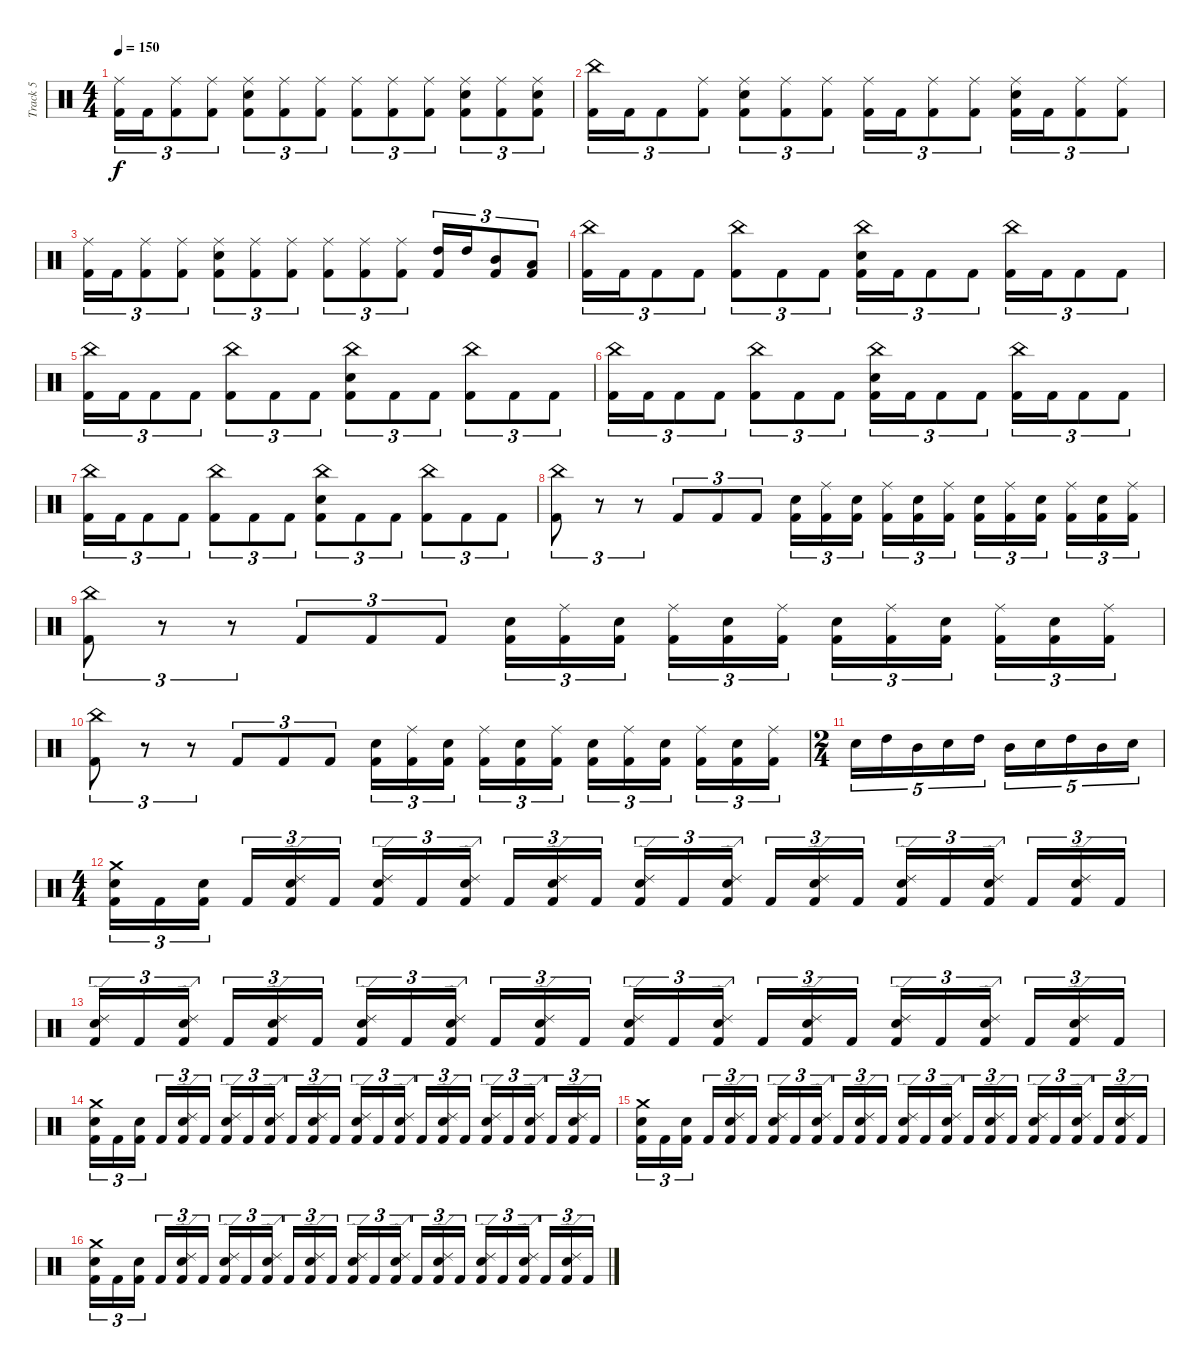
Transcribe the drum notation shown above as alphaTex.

\track ("Track 5" "Track 5") {instrument percussion}
\staff {score}
\articulation defaults
\ts (4 4)
\tempo 150
\clef neutral
\ks c
("Ride (middle)" "Kick (hit) 2").16{tu (3 2) dy f} "Kick (hit) 2".16{tu (3 2)} ("Ride (middle)" "Kick (hit) 2").8{tu (3 2)} ("Ride (middle)" "Kick (hit) 2").8{tu (3 2)} ("Ride (middle)" "Electric Snare (hit)" "Kick (hit) 2").8{tu (3 2)} ("Ride (middle)" "Kick (hit) 2").8{tu (3 2)} ("Ride (middle)" "Kick (hit) 2").8{tu (3 2)} ("Ride (middle)" "Kick (hit) 2").8{tu (3 2)} ("Ride (middle)" "Kick (hit) 2").8{tu (3 2)} ("Ride (middle)" "Kick (hit) 2").8{tu (3 2)} ("Ride (middle)" "Electric Snare (hit)" "Kick (hit) 2").8{tu (3 2)} ("Ride (middle)" "Kick (hit) 2").8{tu (3 2)} ("Ride (middle)" "Electric Snare (hit)" "Kick (hit) 2").8{tu (3 2)} |
("China (hit)" "Kick (hit) 2").16{tu (3 2)} "Kick (hit) 2".16{tu (3 2)} "Kick (hit) 2".8{tu (3 2)} ("Ride (middle)" "Kick (hit) 2").8{tu (3 2)} ("Ride (middle)" "Electric Snare (hit)" "Kick (hit) 2").8{tu (3 2)} ("Ride (middle)" "Kick (hit) 2").8{tu (3 2)} ("Ride (middle)" "Kick (hit) 2").8{tu (3 2)} ("Ride (middle)" "Kick (hit) 2").16{tu (3 2)} "Kick (hit) 2".16{tu (3 2)} ("Ride (middle)" "Kick (hit) 2").8{tu (3 2)} ("Ride (middle)" "Kick (hit) 2").8{tu (3 2)} ("Ride (middle)" "Electric Snare (hit)" "Kick (hit) 2").16{tu (3 2)} "Kick (hit) 2".16{tu (3 2)} ("Ride (middle)" "Kick (hit) 2").8{tu (3 2)} ("Ride (middle)" "Kick (hit) 2").8{tu (3 2)} |
("Ride (middle)" "Kick (hit) 2").16{tu (3 2)} "Kick (hit) 2".16{tu (3 2)} ("Ride (middle)" "Kick (hit) 2").8{tu (3 2)} ("Ride (middle)" "Kick (hit) 2").8{tu (3 2)} ("Ride (middle)" "Electric Snare (hit)" "Kick (hit) 2").8{tu (3 2)} ("Ride (middle)" "Kick (hit) 2").8{tu (3 2)} ("Ride (middle)" "Kick (hit) 2").8{tu (3 2)} ("Ride (middle)" "Kick (hit) 2").8{tu (3 2)} ("Ride (middle)" "Kick (hit) 2").8{tu (3 2)} ("Ride (middle)" "Kick (hit) 2").8{tu (3 2)} ("High Tom (hit)" "Kick (hit) 2").16{tu (3 2)} "High Tom (hit)".16{tu (3 2)} ("Mid Tom (hit)" "Kick (hit) 2").8{tu (3 2)} ("Low Tom (hit)" "Kick (hit) 2").8{tu (3 2)} |
("China (hit)" "Kick (hit) 2").16{tu (3 2)} "Kick (hit) 2".16{tu (3 2)} "Kick (hit) 2".8{tu (3 2)} "Kick (hit) 2".8{tu (3 2)} ("China (hit)" "Kick (hit) 2").8{tu (3 2)} "Kick (hit) 2".8{tu (3 2)} "Kick (hit) 2".8{tu (3 2)} ("China (hit)" "Electric Snare (hit)" "Kick (hit) 2").16{tu (3 2)} "Kick (hit) 2".16{tu (3 2)} "Kick (hit) 2".8{tu (3 2)} "Kick (hit) 2".8{tu (3 2)} ("China (hit)" "Kick (hit) 2").16{tu (3 2)} "Kick (hit) 2".16{tu (3 2)} "Kick (hit) 2".8{tu (3 2)} "Kick (hit) 2".8{tu (3 2)} |
("China (hit)" "Kick (hit) 2").16{tu (3 2)} "Kick (hit) 2".16{tu (3 2)} "Kick (hit) 2".8{tu (3 2)} "Kick (hit) 2".8{tu (3 2)} ("China (hit)" "Kick (hit) 2").8{tu (3 2)} "Kick (hit) 2".8{tu (3 2)} "Kick (hit) 2".8{tu (3 2)} ("China (hit)" "Electric Snare (hit)" "Kick (hit) 2").8{tu (3 2)} "Kick (hit) 2".8{tu (3 2)} "Kick (hit) 2".8{tu (3 2)} ("China (hit)" "Kick (hit) 2").8{tu (3 2)} "Kick (hit) 2".8{tu (3 2)} "Kick (hit) 2".8{tu (3 2)} |
("China (hit)" "Kick (hit) 2").16{tu (3 2)} "Kick (hit) 2".16{tu (3 2)} "Kick (hit) 2".8{tu (3 2)} "Kick (hit) 2".8{tu (3 2)} ("China (hit)" "Kick (hit) 2").8{tu (3 2)} "Kick (hit) 2".8{tu (3 2)} "Kick (hit) 2".8{tu (3 2)} ("China (hit)" "Electric Snare (hit)" "Kick (hit) 2").16{tu (3 2)} "Kick (hit) 2".16{tu (3 2)} "Kick (hit) 2".8{tu (3 2)} "Kick (hit) 2".8{tu (3 2)} ("China (hit)" "Kick (hit) 2").16{tu (3 2)} "Kick (hit) 2".16{tu (3 2)} "Kick (hit) 2".8{tu (3 2)} "Kick (hit) 2".8{tu (3 2)} |
("China (hit)" "Kick (hit) 2").16{tu (3 2)} "Kick (hit) 2".16{tu (3 2)} "Kick (hit) 2".8{tu (3 2)} "Kick (hit) 2".8{tu (3 2)} ("China (hit)" "Kick (hit) 2").8{tu (3 2)} "Kick (hit) 2".8{tu (3 2)} "Kick (hit) 2".8{tu (3 2)} ("China (hit)" "Electric Snare (hit)" "Kick (hit) 2").8{tu (3 2)} "Kick (hit) 2".8{tu (3 2)} "Kick (hit) 2".8{tu (3 2)} ("China (hit)" "Kick (hit) 2").8{tu (3 2)} "Kick (hit) 2".8{tu (3 2)} "Kick (hit) 2".8{tu (3 2)} |
("China (hit)" "Kick (hit) 2").8{tu (3 2)} r.8{tu (3 2)} r.8{tu (3 2)} "Kick (hit) 2".8{tu (3 2)} "Kick (hit) 2".8{tu (3 2)} "Kick (hit) 2".8{tu (3 2)} ("Electric Snare (hit)" "Kick (hit) 2").16{tu (3 2)} ("Ride (middle)" "Kick (hit) 2").16{tu (3 2)} ("Electric Snare (hit)" "Kick (hit) 2").16{tu (3 2)} ("Ride (middle)" "Kick (hit) 2").16{tu (3 2)} ("Electric Snare (hit)" "Kick (hit) 2").16{tu (3 2)} ("Ride (middle)" "Kick (hit) 2").16{tu (3 2)} ("Electric Snare (hit)" "Kick (hit) 2").16{tu (3 2)} ("Ride (middle)" "Kick (hit) 2").16{tu (3 2)} ("Electric Snare (hit)" "Kick (hit) 2").16{tu (3 2)} ("Ride (middle)" "Kick (hit) 2").16{tu (3 2)} ("Electric Snare (hit)" "Kick (hit) 2").16{tu (3 2)} ("Ride (middle)" "Kick (hit) 2").16{tu (3 2)} |
("China (hit)" "Kick (hit) 2").8{tu (3 2)} r.8{tu (3 2)} r.8{tu (3 2)} "Kick (hit) 2".8{tu (3 2)} "Kick (hit) 2".8{tu (3 2)} "Kick (hit) 2".8{tu (3 2)} ("Electric Snare (hit)" "Kick (hit) 2").16{tu (3 2)} ("Ride (middle)" "Kick (hit) 2").16{tu (3 2)} ("Electric Snare (hit)" "Kick (hit) 2").16{tu (3 2)} ("Ride (middle)" "Kick (hit) 2").16{tu (3 2)} ("Electric Snare (hit)" "Kick (hit) 2").16{tu (3 2)} ("Ride (middle)" "Kick (hit) 2").16{tu (3 2)} ("Electric Snare (hit)" "Kick (hit) 2").16{tu (3 2)} ("Ride (middle)" "Kick (hit) 2").16{tu (3 2)} ("Electric Snare (hit)" "Kick (hit) 2").16{tu (3 2)} ("Ride (middle)" "Kick (hit) 2").16{tu (3 2)} ("Electric Snare (hit)" "Kick (hit) 2").16{tu (3 2)} ("Ride (middle)" "Kick (hit) 2").16{tu (3 2)} |
("China (hit)" "Kick (hit) 2").8{tu (3 2)} r.8{tu (3 2)} r.8{tu (3 2)} "Kick (hit) 2".8{tu (3 2)} "Kick (hit) 2".8{tu (3 2)} "Kick (hit) 2".8{tu (3 2)} ("Electric Snare (hit)" "Kick (hit) 2").16{tu (3 2)} ("Ride (middle)" "Kick (hit) 2").16{tu (3 2)} ("Electric Snare (hit)" "Kick (hit) 2").16{tu (3 2)} ("Ride (middle)" "Kick (hit) 2").16{tu (3 2)} ("Electric Snare (hit)" "Kick (hit) 2").16{tu (3 2)} ("Ride (middle)" "Kick (hit) 2").16{tu (3 2)} ("Electric Snare (hit)" "Kick (hit) 2").16{tu (3 2)} ("Ride (middle)" "Kick (hit) 2").16{tu (3 2)} ("Electric Snare (hit)" "Kick (hit) 2").16{tu (3 2)} ("Ride (middle)" "Kick (hit) 2").16{tu (3 2)} ("Electric Snare (hit)" "Kick (hit) 2").16{tu (3 2)} ("Ride (middle)" "Kick (hit) 2").16{tu (3 2)} |
\ts (2 4)
"Electric Snare (hit)".16{tu (5 4)} "High Tom (hit)".16{tu (5 4)} "Mid Tom (hit)".16{tu (5 4)} "Electric Snare (hit)".16{tu (5 4)} "High Tom (hit)".16{tu (5 4)} "Mid Tom (hit)".16{tu (5 4)} "Electric Snare (hit)".16{tu (5 4)} "High Tom (hit)".16{tu (5 4)} "Mid Tom (hit)".16{tu (5 4)} "Electric Snare (hit)".16{tu (5 4)} |
\ts (4 4)
("Crash medium (hit)" "Electric Snare (hit)" "Kick (hit) 2").16{tu (3 2)} "Kick (hit) 2".16{tu (3 2)} ("Electric Snare (hit)" "Kick (hit) 2").16{tu (3 2)} "Kick (hit) 2".16{tu (3 2)} ("Ride (edge) 2" "Electric Snare (hit)" "Kick (hit) 2").16{tu (3 2)} "Kick (hit) 2".16{tu (3 2)} ("Ride (edge) 2" "Electric Snare (hit)" "Kick (hit) 2").16{tu (3 2)} "Kick (hit) 2".16{tu (3 2)} ("Ride (edge) 2" "Electric Snare (hit)" "Kick (hit) 2").16{tu (3 2)} "Kick (hit) 2".16{tu (3 2)} ("Ride (edge) 2" "Electric Snare (hit)" "Kick (hit) 2").16{tu (3 2)} "Kick (hit) 2".16{tu (3 2)} ("Ride (edge) 2" "Electric Snare (hit)" "Kick (hit) 2").16{tu (3 2)} "Kick (hit) 2".16{tu (3 2)} ("Ride (edge) 2" "Electric Snare (hit)" "Kick (hit) 2").16{tu (3 2)} "Kick (hit) 2".16{tu (3 2)} ("Ride (edge) 2" "Electric Snare (hit)" "Kick (hit) 2").16{tu (3 2)} "Kick (hit) 2".16{tu (3 2)} ("Ride (edge) 2" "Electric Snare (hit)" "Kick (hit) 2").16{tu (3 2)} "Kick (hit) 2".16{tu (3 2)} ("Ride (edge) 2" "Electric Snare (hit)" "Kick (hit) 2").16{tu (3 2)} "Kick (hit) 2".16{tu (3 2)} ("Ride (edge) 2" "Electric Snare (hit)" "Kick (hit) 2").16{tu (3 2)} "Kick (hit) 2".16{tu (3 2)} |
("Ride (edge) 2" "Electric Snare (hit)" "Kick (hit) 2").16{tu (3 2)} "Kick (hit) 2".16{tu (3 2)} ("Ride (edge) 2" "Electric Snare (hit)" "Kick (hit) 2").16{tu (3 2)} "Kick (hit) 2".16{tu (3 2)} ("Ride (edge) 2" "Electric Snare (hit)" "Kick (hit) 2").16{tu (3 2)} "Kick (hit) 2".16{tu (3 2)} ("Ride (edge) 2" "Electric Snare (hit)" "Kick (hit) 2").16{tu (3 2)} "Kick (hit) 2".16{tu (3 2)} ("Ride (edge) 2" "Electric Snare (hit)" "Kick (hit) 2").16{tu (3 2)} "Kick (hit) 2".16{tu (3 2)} ("Ride (edge) 2" "Electric Snare (hit)" "Kick (hit) 2").16{tu (3 2)} "Kick (hit) 2".16{tu (3 2)} ("Ride (edge) 2" "Electric Snare (hit)" "Kick (hit) 2").16{tu (3 2)} "Kick (hit) 2".16{tu (3 2)} ("Ride (edge) 2" "Electric Snare (hit)" "Kick (hit) 2").16{tu (3 2)} "Kick (hit) 2".16{tu (3 2)} ("Ride (edge) 2" "Electric Snare (hit)" "Kick (hit) 2").16{tu (3 2)} "Kick (hit) 2".16{tu (3 2)} ("Ride (edge) 2" "Electric Snare (hit)" "Kick (hit) 2").16{tu (3 2)} "Kick (hit) 2".16{tu (3 2)} ("Ride (edge) 2" "Electric Snare (hit)" "Kick (hit) 2").16{tu (3 2)} "Kick (hit) 2".16{tu (3 2)} ("Ride (edge) 2" "Electric Snare (hit)" "Kick (hit) 2").16{tu (3 2)} "Kick (hit) 2".16{tu (3 2)} |
("Crash medium (hit)" "Electric Snare (hit)" "Kick (hit) 2").16{tu (3 2)} "Kick (hit) 2".16{tu (3 2)} ("Electric Snare (hit)" "Kick (hit) 2").16{tu (3 2)} "Kick (hit) 2".16{tu (3 2)} ("Ride (edge) 2" "Electric Snare (hit)" "Kick (hit) 2").16{tu (3 2)} "Kick (hit) 2".16{tu (3 2)} ("Ride (edge) 2" "Electric Snare (hit)" "Kick (hit) 2").16{tu (3 2)} "Kick (hit) 2".16{tu (3 2)} ("Ride (edge) 2" "Electric Snare (hit)" "Kick (hit) 2").16{tu (3 2)} "Kick (hit) 2".16{tu (3 2)} ("Ride (edge) 2" "Electric Snare (hit)" "Kick (hit) 2").16{tu (3 2)} "Kick (hit) 2".16{tu (3 2)} ("Ride (edge) 2" "Electric Snare (hit)" "Kick (hit) 2").16{tu (3 2)} "Kick (hit) 2".16{tu (3 2)} ("Ride (edge) 2" "Electric Snare (hit)" "Kick (hit) 2").16{tu (3 2)} "Kick (hit) 2".16{tu (3 2)} ("Ride (edge) 2" "Electric Snare (hit)" "Kick (hit) 2").16{tu (3 2)} "Kick (hit) 2".16{tu (3 2)} ("Ride (edge) 2" "Electric Snare (hit)" "Kick (hit) 2").16{tu (3 2)} "Kick (hit) 2".16{tu (3 2)} ("Ride (edge) 2" "Electric Snare (hit)" "Kick (hit) 2").16{tu (3 2)} "Kick (hit) 2".16{tu (3 2)} ("Ride (edge) 2" "Electric Snare (hit)" "Kick (hit) 2").16{tu (3 2)} "Kick (hit) 2".16{tu (3 2)} |
("Crash medium (hit)" "Electric Snare (hit)" "Kick (hit) 2").16{tu (3 2)} "Kick (hit) 2".16{tu (3 2)} ("Electric Snare (hit)" "Kick (hit) 2").16{tu (3 2)} "Kick (hit) 2".16{tu (3 2)} ("Ride (edge) 2" "Electric Snare (hit)" "Kick (hit) 2").16{tu (3 2)} "Kick (hit) 2".16{tu (3 2)} ("Ride (edge) 2" "Electric Snare (hit)" "Kick (hit) 2").16{tu (3 2)} "Kick (hit) 2".16{tu (3 2)} ("Ride (edge) 2" "Electric Snare (hit)" "Kick (hit) 2").16{tu (3 2)} "Kick (hit) 2".16{tu (3 2)} ("Ride (edge) 2" "Electric Snare (hit)" "Kick (hit) 2").16{tu (3 2)} "Kick (hit) 2".16{tu (3 2)} ("Ride (edge) 2" "Electric Snare (hit)" "Kick (hit) 2").16{tu (3 2)} "Kick (hit) 2".16{tu (3 2)} ("Ride (edge) 2" "Electric Snare (hit)" "Kick (hit) 2").16{tu (3 2)} "Kick (hit) 2".16{tu (3 2)} ("Ride (edge) 2" "Electric Snare (hit)" "Kick (hit) 2").16{tu (3 2)} "Kick (hit) 2".16{tu (3 2)} ("Ride (edge) 2" "Electric Snare (hit)" "Kick (hit) 2").16{tu (3 2)} "Kick (hit) 2".16{tu (3 2)} ("Ride (edge) 2" "Electric Snare (hit)" "Kick (hit) 2").16{tu (3 2)} "Kick (hit) 2".16{tu (3 2)} ("Ride (edge) 2" "Electric Snare (hit)" "Kick (hit) 2").16{tu (3 2)} "Kick (hit) 2".16{tu (3 2)} |
("Crash medium (hit)" "Electric Snare (hit)" "Kick (hit) 2").16{tu (3 2)} "Kick (hit) 2".16{tu (3 2)} ("Electric Snare (hit)" "Kick (hit) 2").16{tu (3 2)} "Kick (hit) 2".16{tu (3 2)} ("Ride (edge) 2" "Electric Snare (hit)" "Kick (hit) 2").16{tu (3 2)} "Kick (hit) 2".16{tu (3 2)} ("Ride (edge) 2" "Electric Snare (hit)" "Kick (hit) 2").16{tu (3 2)} "Kick (hit) 2".16{tu (3 2)} ("Ride (edge) 2" "Electric Snare (hit)" "Kick (hit) 2").16{tu (3 2)} "Kick (hit) 2".16{tu (3 2)} ("Ride (edge) 2" "Electric Snare (hit)" "Kick (hit) 2").16{tu (3 2)} "Kick (hit) 2".16{tu (3 2)} ("Ride (edge) 2" "Electric Snare (hit)" "Kick (hit) 2").16{tu (3 2)} "Kick (hit) 2".16{tu (3 2)} ("Ride (edge) 2" "Electric Snare (hit)" "Kick (hit) 2").16{tu (3 2)} "Kick (hit) 2".16{tu (3 2)} ("Ride (edge) 2" "Electric Snare (hit)" "Kick (hit) 2").16{tu (3 2)} "Kick (hit) 2".16{tu (3 2)} ("Ride (edge) 2" "Electric Snare (hit)" "Kick (hit) 2").16{tu (3 2)} "Kick (hit) 2".16{tu (3 2)} ("Ride (edge) 2" "Electric Snare (hit)" "Kick (hit) 2").16{tu (3 2)} "Kick (hit) 2".16{tu (3 2)} ("Ride (edge) 2" "Electric Snare (hit)" "Kick (hit) 2").16{tu (3 2)} "Kick (hit) 2".16{tu (3 2)}
